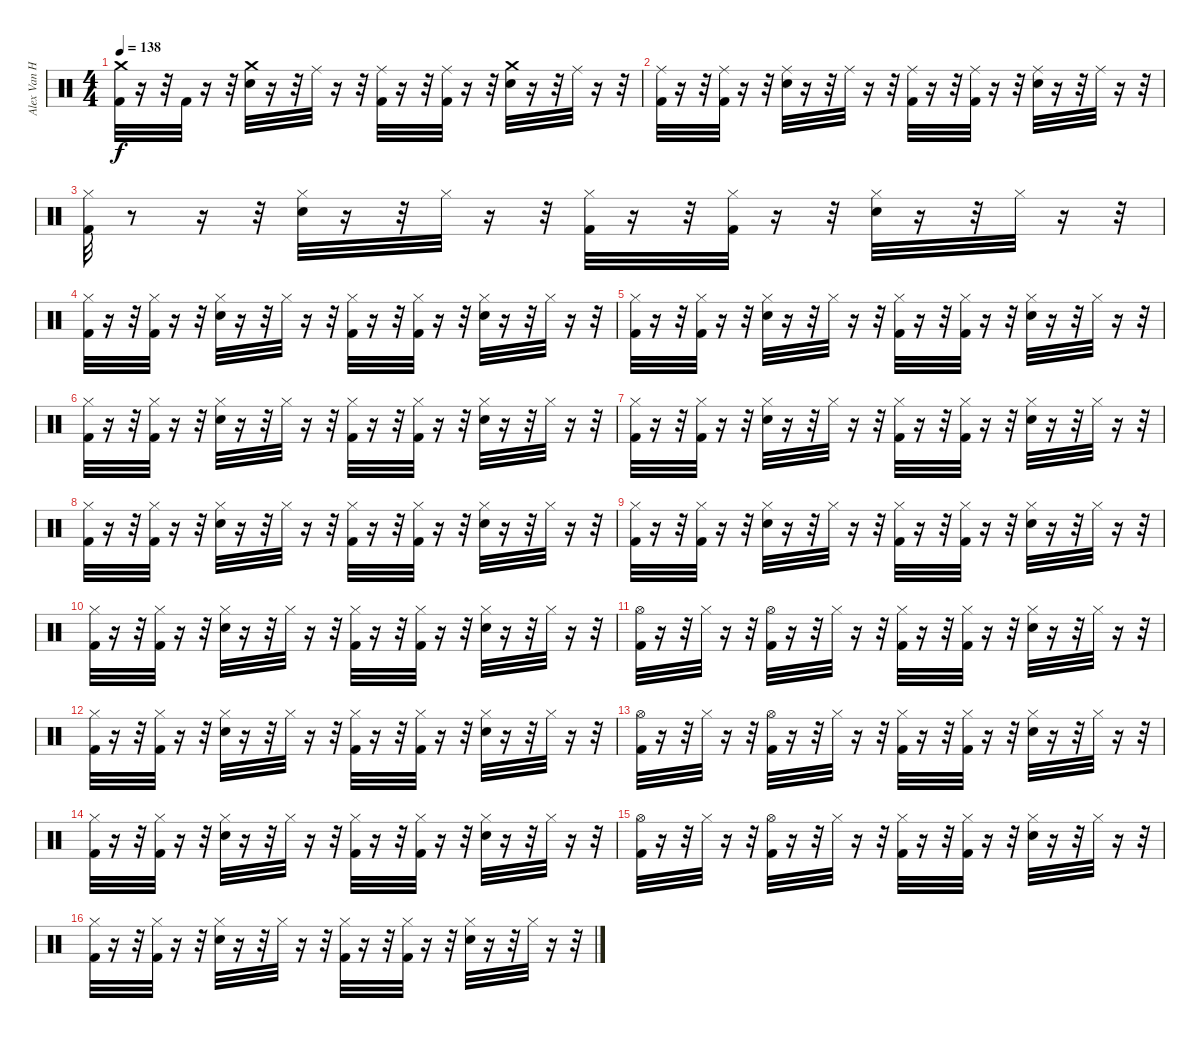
\track ("Alex Van Halen (Drums)" "Alex Van H") {instrument percussion}
\staff {score}
\articulation defaults
\ts (4 4)
\tempo 138
\clef neutral
\ks c
("Kick (hit) 2" "Crash medium (hit)").32{dy f} r.16 r.32 "Kick (hit) 2".32 r.16 r.32 ("Snare (hit) 2" "Crash medium (hit)").32 r.16 r.32 "Ride (middle)".32 r.16 r.32 ("Kick (hit) 2" "Ride (middle)").32 r.16 r.32 ("Kick (hit) 2" "Ride (middle)").32 r.16 r.32 ("Snare (hit) 2" "Crash medium (hit)").32 r.16 r.32 "Ride (middle)".32 r.16 r.32 |
("Kick (hit) 2" "Ride (middle)").32 r.16 r.32 ("Kick (hit) 2" "Ride (middle)").32 r.16 r.32 ("Snare (hit) 2" "Ride (middle)").32 r.16 r.32 "Ride (middle)".32 r.16 r.32 ("Kick (hit) 2" "Ride (middle)").32 r.16 r.32 ("Kick (hit) 2" "Ride (middle)").32 r.16 r.32 ("Snare (hit) 2" "Ride (middle)").32 r.16 r.32 "Ride (middle)".32 r.16 r.32 |
("Hi-Hat (closed)" "Kick (hit) 2").32 r.8 r.16 r.32 ("Hi-Hat (closed)" "Snare (hit) 2").32 r.16 r.32 "Hi-Hat (closed)".32 r.16 r.32 ("Hi-Hat (closed)" "Kick (hit) 2").32 r.16 r.32 ("Hi-Hat (closed)" "Kick (hit) 2").32 r.16 r.32 ("Hi-Hat (closed)" "Snare (hit) 2").32 r.16 r.32 "Hi-Hat (closed)".32 r.16 r.32 |
("Hi-Hat (closed)" "Kick (hit) 2").32 r.16 r.32 ("Hi-Hat (closed)" "Kick (hit) 2").32 r.16 r.32 ("Hi-Hat (closed)" "Snare (hit) 2").32 r.16 r.32 "Hi-Hat (closed)".32 r.16 r.32 ("Hi-Hat (closed)" "Kick (hit) 2").32 r.16 r.32 ("Hi-Hat (closed)" "Kick (hit) 2").32 r.16 r.32 ("Hi-Hat (closed)" "Snare (hit) 2").32 r.16 r.32 "Hi-Hat (closed)".32 r.16 r.32 |
("Hi-Hat (closed)" "Kick (hit) 2").32 r.16 r.32 ("Hi-Hat (closed)" "Kick (hit) 2").32 r.16 r.32 ("Hi-Hat (closed)" "Snare (hit) 2").32 r.16 r.32 "Hi-Hat (closed)".32 r.16 r.32 ("Hi-Hat (closed)" "Kick (hit) 2").32 r.16 r.32 ("Hi-Hat (closed)" "Kick (hit) 2").32 r.16 r.32 ("Hi-Hat (closed)" "Snare (hit) 2").32 r.16 r.32 "Hi-Hat (closed)".32 r.16 r.32 |
("Hi-Hat (closed)" "Kick (hit) 2").32 r.16 r.32 ("Hi-Hat (closed)" "Kick (hit) 2").32 r.16 r.32 ("Hi-Hat (closed)" "Snare (hit) 2").32 r.16 r.32 "Hi-Hat (closed)".32 r.16 r.32 ("Hi-Hat (closed)" "Kick (hit) 2").32 r.16 r.32 ("Hi-Hat (closed)" "Kick (hit) 2").32 r.16 r.32 ("Hi-Hat (closed)" "Snare (hit) 2").32 r.16 r.32 "Hi-Hat (closed)".32 r.16 r.32 |
("Hi-Hat (closed)" "Kick (hit) 2").32 r.16 r.32 ("Hi-Hat (closed)" "Kick (hit) 2").32 r.16 r.32 ("Hi-Hat (closed)" "Snare (hit) 2").32 r.16 r.32 "Hi-Hat (closed)".32 r.16 r.32 ("Hi-Hat (closed)" "Kick (hit) 2").32 r.16 r.32 ("Hi-Hat (closed)" "Kick (hit) 2").32 r.16 r.32 ("Hi-Hat (closed)" "Snare (hit) 2").32 r.16 r.32 "Hi-Hat (closed)".32 r.16 r.32 |
("Hi-Hat (closed)" "Kick (hit) 2").32 r.16 r.32 ("Hi-Hat (closed)" "Kick (hit) 2").32 r.16 r.32 ("Hi-Hat (closed)" "Snare (hit) 2").32 r.16 r.32 "Hi-Hat (closed)".32 r.16 r.32 ("Hi-Hat (closed)" "Kick (hit) 2").32 r.16 r.32 ("Hi-Hat (closed)" "Kick (hit) 2").32 r.16 r.32 ("Hi-Hat (closed)" "Snare (hit) 2").32 r.16 r.32 "Hi-Hat (closed)".32 r.16 r.32 |
("Hi-Hat (closed)" "Kick (hit) 2").32 r.16 r.32 ("Hi-Hat (closed)" "Kick (hit) 2").32 r.16 r.32 ("Hi-Hat (closed)" "Snare (hit) 2").32 r.16 r.32 "Hi-Hat (closed)".32 r.16 r.32 ("Hi-Hat (closed)" "Kick (hit) 2").32 r.16 r.32 ("Hi-Hat (closed)" "Kick (hit) 2").32 r.16 r.32 ("Hi-Hat (closed)" "Snare (hit) 2").32 r.16 r.32 "Hi-Hat (closed)".32 r.16 r.32 |
("Hi-Hat (closed)" "Kick (hit) 2").32 r.16 r.32 ("Hi-Hat (closed)" "Kick (hit) 2").32 r.16 r.32 ("Hi-Hat (closed)" "Snare (hit) 2").32 r.16 r.32 "Hi-Hat (closed)".32 r.16 r.32 ("Hi-Hat (closed)" "Kick (hit) 2").32 r.16 r.32 ("Hi-Hat (closed)" "Kick (hit) 2").32 r.16 r.32 ("Hi-Hat (closed)" "Snare (hit) 2").32 r.16 r.32 "Hi-Hat (closed)".32 r.16 r.32 |
("Kick (hit) 2" "Hi-Hat (open)").32 r.16 r.32 "Hi-Hat (closed)".32 r.16 r.32 ("Kick (hit) 2" "Hi-Hat (open)").32 r.16 r.32 "Hi-Hat (closed)".32 r.16 r.32 ("Kick (hit) 2" "Hi-Hat (closed)").32 r.16 r.32 ("Kick (hit) 2" "Hi-Hat (closed)").32 r.16 r.32 ("Snare (hit) 2" "Hi-Hat (closed)").32 r.16 r.32 "Hi-Hat (closed)".32 r.16 r.32 |
("Kick (hit) 2" "Hi-Hat (closed)").32 r.16 r.32 ("Kick (hit) 2" "Hi-Hat (closed)").32 r.16 r.32 ("Snare (hit) 2" "Hi-Hat (closed)").32 r.16 r.32 "Hi-Hat (closed)".32 r.16 r.32 ("Kick (hit) 2" "Hi-Hat (closed)").32 r.16 r.32 ("Kick (hit) 2" "Hi-Hat (closed)").32 r.16 r.32 ("Snare (hit) 2" "Hi-Hat (closed)").32 r.16 r.32 "Hi-Hat (closed)".32 r.16 r.32 |
("Kick (hit) 2" "Hi-Hat (open)").32 r.16 r.32 "Hi-Hat (closed)".32 r.16 r.32 ("Kick (hit) 2" "Hi-Hat (open)").32 r.16 r.32 "Hi-Hat (closed)".32 r.16 r.32 ("Kick (hit) 2" "Hi-Hat (closed)").32 r.16 r.32 ("Kick (hit) 2" "Hi-Hat (closed)").32 r.16 r.32 ("Snare (hit) 2" "Hi-Hat (closed)").32 r.16 r.32 "Hi-Hat (closed)".32 r.16 r.32 |
("Kick (hit) 2" "Hi-Hat (closed)").32 r.16 r.32 ("Kick (hit) 2" "Hi-Hat (closed)").32 r.16 r.32 ("Snare (hit) 2" "Hi-Hat (closed)").32 r.16 r.32 "Hi-Hat (closed)".32 r.16 r.32 ("Kick (hit) 2" "Hi-Hat (closed)").32 r.16 r.32 ("Kick (hit) 2" "Hi-Hat (closed)").32 r.16 r.32 ("Snare (hit) 2" "Hi-Hat (closed)").32 r.16 r.32 "Hi-Hat (closed)".32 r.16 r.32 |
("Kick (hit) 2" "Hi-Hat (open)").32 r.16 r.32 "Hi-Hat (closed)".32 r.16 r.32 ("Kick (hit) 2" "Hi-Hat (open)").32 r.16 r.32 "Hi-Hat (closed)".32 r.16 r.32 ("Kick (hit) 2" "Hi-Hat (closed)").32 r.16 r.32 ("Kick (hit) 2" "Hi-Hat (closed)").32 r.16 r.32 ("Snare (hit) 2" "Hi-Hat (closed)").32 r.16 r.32 "Hi-Hat (closed)".32 r.16 r.32 |
("Kick (hit) 2" "Hi-Hat (closed)").32 r.16 r.32 ("Kick (hit) 2" "Hi-Hat (closed)").32 r.16 r.32 ("Snare (hit) 2" "Hi-Hat (closed)").32 r.16 r.32 "Hi-Hat (closed)".32 r.16 r.32 ("Kick (hit) 2" "Hi-Hat (closed)").32 r.16 r.32 ("Kick (hit) 2" "Hi-Hat (closed)").32 r.16 r.32 ("Snare (hit) 2" "Hi-Hat (closed)").32 r.16 r.32 "Hi-Hat (closed)".32 r.16 r.32
